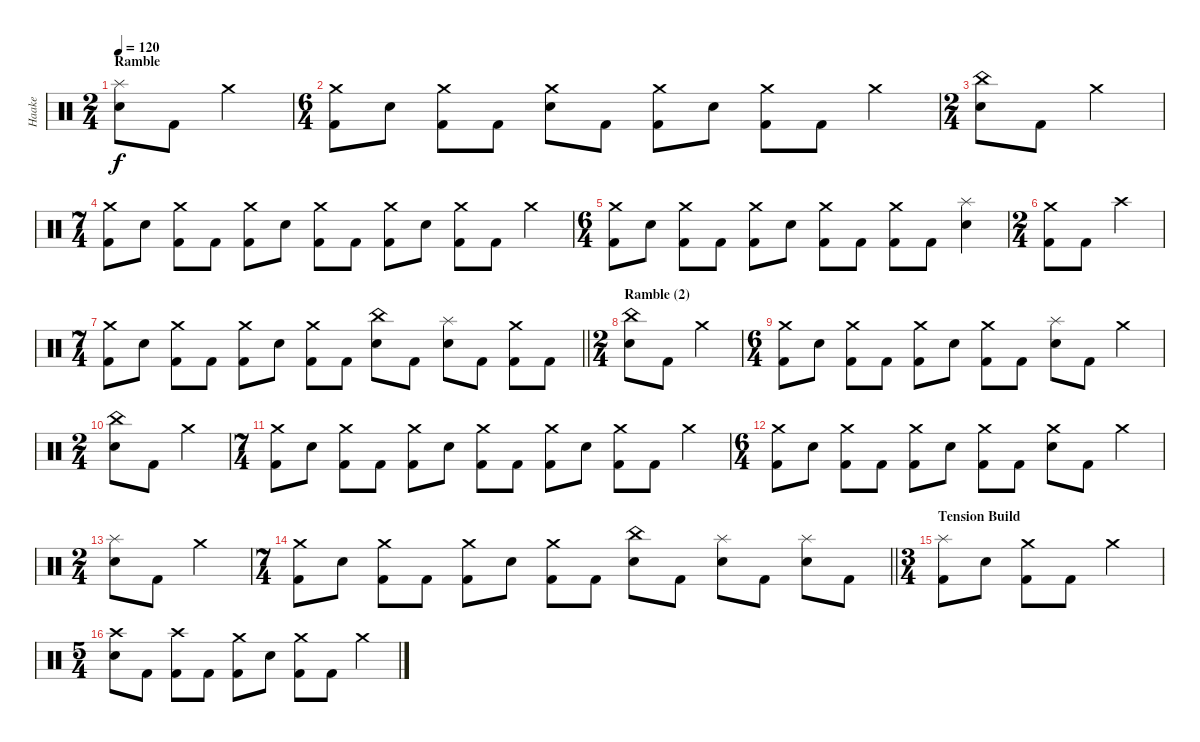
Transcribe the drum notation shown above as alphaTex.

\track ("Haake" "Haake") {instrument percussion}
\staff {score}
\articulation defaults
\ts (2 4)
\section ("" "Ramble")
\tempo 120
\clef neutral
\ks c
("Splash (hit)" "Electric Snare (hit)").8{dy f} "Kick (hit) 2".8 "Crash medium (hit)".4 |
\ts (6 4)
("Crash medium (hit)" "Kick (hit) 2").8 "Electric Snare (hit)".8 ("Crash medium (hit)" "Kick (hit) 2").8 "Kick (hit) 2".8 ("Crash medium (hit)" "Electric Snare (hit)").8 "Kick (hit) 2".8 ("Crash medium (hit)" "Kick (hit) 2").8 "Electric Snare (hit)".8 ("Crash medium (hit)" "Kick (hit) 2").8 "Kick (hit) 2".8 "Crash medium (hit)".4 |
\ts (2 4)
("China (hit)" "Electric Snare (hit)").8 "Kick (hit) 2".8 "Crash medium (hit)".4 |
\ts (7 4)
("Crash medium (hit)" "Kick (hit) 2").8 "Electric Snare (hit)".8 ("Crash medium (hit)" "Kick (hit) 2").8 "Kick (hit) 2".8 ("Crash medium (hit)" "Kick (hit) 2").8 "Electric Snare (hit)".8 ("Crash medium (hit)" "Kick (hit) 2").8 "Kick (hit) 2".8 ("Crash medium (hit)" "Kick (hit) 2").8 "Electric Snare (hit)".8 ("Crash medium (hit)" "Kick (hit) 2").8 "Kick (hit) 2".8 "Crash medium (hit)".4 |
\ts (6 4)
("Crash medium (hit)" "Kick (hit) 2").8 "Electric Snare (hit)".8 ("Crash medium (hit)" "Kick (hit) 2").8 "Kick (hit) 2".8 ("Crash medium (hit)" "Kick (hit) 2").8 "Electric Snare (hit)".8 ("Crash medium (hit)" "Kick (hit) 2").8 "Kick (hit) 2".8 ("Crash medium (hit)" "Kick (hit) 2").8 "Kick (hit) 2".8 ("Splash (hit)" "Electric Snare (hit)").4 |
\ts (2 4)
("Crash medium (hit)" "Kick (hit) 2").8 "Kick (hit) 2".8 "Crash high (hit)".4 |
\ts (7 4)
\barLineRight lightlight
("Crash medium (hit)" "Kick (hit) 2").8 "Electric Snare (hit)".8 ("Crash medium (hit)" "Kick (hit) 2").8 "Kick (hit) 2".8 ("Crash medium (hit)" "Kick (hit) 2").8 "Electric Snare (hit)".8 ("Crash medium (hit)" "Kick (hit) 2").8 "Kick (hit) 2".8 ("China (hit)" "Electric Snare (hit)").8 "Kick (hit) 2".8 ("Splash (hit)" "Electric Snare (hit)").8 "Kick (hit) 2".8 ("Crash medium (hit)" "Kick (hit) 2").8 "Kick (hit) 2".8 |
\ts (2 4)
\section ("" "Ramble (2)")
("China (hit)" "Electric Snare (hit)").8 "Kick (hit) 2".8 "Crash medium (hit)".4 |
\ts (6 4)
("Crash medium (hit)" "Kick (hit) 2").8 "Electric Snare (hit)".8 ("Crash medium (hit)" "Kick (hit) 2").8 "Kick (hit) 2".8 ("Crash medium (hit)" "Kick (hit) 2").8 "Electric Snare (hit)".8 ("Crash medium (hit)" "Kick (hit) 2").8 "Kick (hit) 2".8 ("Splash (hit)" "Electric Snare (hit)").8 "Kick (hit) 2".8 "Crash medium (hit)".4 |
\ts (2 4)
("China (hit)" "Electric Snare (hit)").8 "Kick (hit) 2".8 "Crash medium (hit)".4 |
\ts (7 4)
("Crash medium (hit)" "Kick (hit) 2").8 "Electric Snare (hit)".8 ("Crash medium (hit)" "Kick (hit) 2").8 "Kick (hit) 2".8 ("Crash medium (hit)" "Kick (hit) 2").8 "Electric Snare (hit)".8 ("Crash medium (hit)" "Kick (hit) 2").8 "Kick (hit) 2".8 ("Crash medium (hit)" "Kick (hit) 2").8 "Electric Snare (hit)".8 ("Crash medium (hit)" "Kick (hit) 2").8 "Kick (hit) 2".8 "Crash medium (hit)".4 |
\ts (6 4)
("Crash medium (hit)" "Kick (hit) 2").8 "Electric Snare (hit)".8 ("Crash medium (hit)" "Kick (hit) 2").8 "Kick (hit) 2".8 ("Crash medium (hit)" "Kick (hit) 2").8 "Electric Snare (hit)".8 ("Crash medium (hit)" "Kick (hit) 2").8 "Kick (hit) 2".8 ("Crash medium (hit)" "Electric Snare (hit)").8 "Kick (hit) 2".8 "Crash medium (hit)".4 |
\ts (2 4)
("Splash (hit)" "Electric Snare (hit)").8 "Kick (hit) 2".8 "Crash medium (hit)".4 |
\ts (7 4)
\barLineRight lightlight
("Crash medium (hit)" "Kick (hit) 2").8 "Electric Snare (hit)".8 ("Crash medium (hit)" "Kick (hit) 2").8 "Kick (hit) 2".8 ("Crash medium (hit)" "Kick (hit) 2").8 "Electric Snare (hit)".8 ("Crash medium (hit)" "Kick (hit) 2").8 "Kick (hit) 2".8 ("China (hit)" "Electric Snare (hit)").8 "Kick (hit) 2".8 ("Splash (hit)" "Electric Snare (hit)").8 "Kick (hit) 2".8 ("Splash (hit)" "Electric Snare (hit)").8 "Kick (hit) 2".8 |
\ts (3 4)
\section ("" "Tension Build")
("Splash (hit)" "Kick (hit) 2").8 "Electric Snare (hit)".8 ("Crash medium (hit)" "Kick (hit) 2").8 "Kick (hit) 2".8 "Crash medium (hit)".4 |
\ts (5 4)
("Crash high (hit)" "Electric Snare (hit)").8 "Kick (hit) 2".8 ("Crash high (hit)" "Kick (hit) 2").8 "Kick (hit) 2".8 ("Crash medium (hit)" "Kick (hit) 2").8 "Electric Snare (hit)".8 ("Crash medium (hit)" "Kick (hit) 2").8 "Kick (hit) 2".8 "Crash medium (hit)".4
